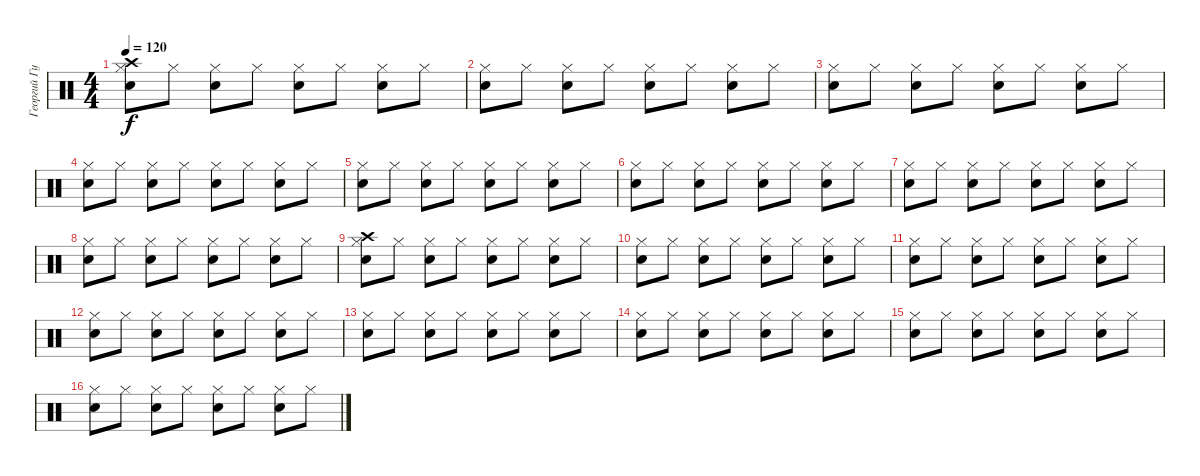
\track ("Георгий Гурьянов" "Георгий Гу") {instrument percussion}
\staff {score}
\articulation defaults
\ts (4 4)
\tempo 120
\clef neutral
\ks c
("Hi-Hat (closed)" "Crash high (hit)" "Snare (hit) 2").8{dy f} "Hi-Hat (closed)".8 ("Hi-Hat (closed)" "Snare (hit) 2").8 "Hi-Hat (closed)".8 ("Hi-Hat (closed)" "Snare (hit) 2").8 "Hi-Hat (closed)".8 ("Hi-Hat (closed)" "Snare (hit) 2").8 "Hi-Hat (closed)".8 |
("Hi-Hat (closed)" "Snare (hit) 2").8 "Hi-Hat (closed)".8 ("Hi-Hat (closed)" "Snare (hit) 2").8 "Hi-Hat (closed)".8 ("Hi-Hat (closed)" "Snare (hit) 2").8 "Hi-Hat (closed)".8 ("Hi-Hat (closed)" "Snare (hit) 2").8 "Hi-Hat (closed)".8 |
("Hi-Hat (closed)" "Snare (hit) 2").8 "Hi-Hat (closed)".8 ("Hi-Hat (closed)" "Snare (hit) 2").8 "Hi-Hat (closed)".8 ("Hi-Hat (closed)" "Snare (hit) 2").8 "Hi-Hat (closed)".8 ("Hi-Hat (closed)" "Snare (hit) 2").8 "Hi-Hat (closed)".8 |
("Hi-Hat (closed)" "Snare (hit) 2").8 "Hi-Hat (closed)".8 ("Hi-Hat (closed)" "Snare (hit) 2").8 "Hi-Hat (closed)".8 ("Hi-Hat (closed)" "Snare (hit) 2").8 "Hi-Hat (closed)".8 ("Hi-Hat (closed)" "Snare (hit) 2").8 "Hi-Hat (closed)".8 |
("Hi-Hat (closed)" "Snare (hit) 2").8 "Hi-Hat (closed)".8 ("Hi-Hat (closed)" "Snare (hit) 2").8 "Hi-Hat (closed)".8 ("Hi-Hat (closed)" "Snare (hit) 2").8 "Hi-Hat (closed)".8 ("Hi-Hat (closed)" "Snare (hit) 2").8 "Hi-Hat (closed)".8 |
("Hi-Hat (closed)" "Snare (hit) 2").8 "Hi-Hat (closed)".8 ("Hi-Hat (closed)" "Snare (hit) 2").8 "Hi-Hat (closed)".8 ("Hi-Hat (closed)" "Snare (hit) 2").8 "Hi-Hat (closed)".8 ("Hi-Hat (closed)" "Snare (hit) 2").8 "Hi-Hat (closed)".8 |
("Hi-Hat (closed)" "Snare (hit) 2").8 "Hi-Hat (closed)".8 ("Hi-Hat (closed)" "Snare (hit) 2").8 "Hi-Hat (closed)".8 ("Hi-Hat (closed)" "Snare (hit) 2").8 "Hi-Hat (closed)".8 ("Hi-Hat (closed)" "Snare (hit) 2").8 "Hi-Hat (closed)".8 |
("Hi-Hat (closed)" "Snare (hit) 2").8 "Hi-Hat (closed)".8 ("Hi-Hat (closed)" "Snare (hit) 2").8 "Hi-Hat (closed)".8 ("Hi-Hat (closed)" "Snare (hit) 2").8 "Hi-Hat (closed)".8 ("Hi-Hat (closed)" "Snare (hit) 2").8 "Hi-Hat (closed)".8 |
("Hi-Hat (closed)" "Crash high (hit)" "Snare (hit) 2").8 "Hi-Hat (closed)".8 ("Hi-Hat (closed)" "Snare (hit) 2").8 "Hi-Hat (closed)".8 ("Hi-Hat (closed)" "Snare (hit) 2").8 "Hi-Hat (closed)".8 ("Hi-Hat (closed)" "Snare (hit) 2").8 "Hi-Hat (closed)".8 |
("Hi-Hat (closed)" "Snare (hit) 2").8 "Hi-Hat (closed)".8 ("Hi-Hat (closed)" "Snare (hit) 2").8 "Hi-Hat (closed)".8 ("Hi-Hat (closed)" "Snare (hit) 2").8 "Hi-Hat (closed)".8 ("Hi-Hat (closed)" "Snare (hit) 2").8 "Hi-Hat (closed)".8 |
("Hi-Hat (closed)" "Snare (hit) 2").8 "Hi-Hat (closed)".8 ("Hi-Hat (closed)" "Snare (hit) 2").8 "Hi-Hat (closed)".8 ("Hi-Hat (closed)" "Snare (hit) 2").8 "Hi-Hat (closed)".8 ("Hi-Hat (closed)" "Snare (hit) 2").8 "Hi-Hat (closed)".8 |
("Hi-Hat (closed)" "Snare (hit) 2").8 "Hi-Hat (closed)".8 ("Hi-Hat (closed)" "Snare (hit) 2").8 "Hi-Hat (closed)".8 ("Hi-Hat (closed)" "Snare (hit) 2").8 "Hi-Hat (closed)".8 ("Hi-Hat (closed)" "Snare (hit) 2").8 "Hi-Hat (closed)".8 |
("Hi-Hat (closed)" "Snare (hit) 2").8 "Hi-Hat (closed)".8 ("Hi-Hat (closed)" "Snare (hit) 2").8 "Hi-Hat (closed)".8 ("Hi-Hat (closed)" "Snare (hit) 2").8 "Hi-Hat (closed)".8 ("Hi-Hat (closed)" "Snare (hit) 2").8 "Hi-Hat (closed)".8 |
("Hi-Hat (closed)" "Snare (hit) 2").8 "Hi-Hat (closed)".8 ("Hi-Hat (closed)" "Snare (hit) 2").8 "Hi-Hat (closed)".8 ("Hi-Hat (closed)" "Snare (hit) 2").8 "Hi-Hat (closed)".8 ("Hi-Hat (closed)" "Snare (hit) 2").8 "Hi-Hat (closed)".8 |
("Hi-Hat (closed)" "Snare (hit) 2").8 "Hi-Hat (closed)".8 ("Hi-Hat (closed)" "Snare (hit) 2").8 "Hi-Hat (closed)".8 ("Hi-Hat (closed)" "Snare (hit) 2").8 "Hi-Hat (closed)".8 ("Hi-Hat (closed)" "Snare (hit) 2").8 "Hi-Hat (closed)".8 |
("Hi-Hat (closed)" "Snare (hit) 2").8 "Hi-Hat (closed)".8 ("Hi-Hat (closed)" "Snare (hit) 2").8 "Hi-Hat (closed)".8 ("Hi-Hat (closed)" "Snare (hit) 2").8 "Hi-Hat (closed)".8 ("Hi-Hat (closed)" "Snare (hit) 2").8 "Hi-Hat (closed)".8
